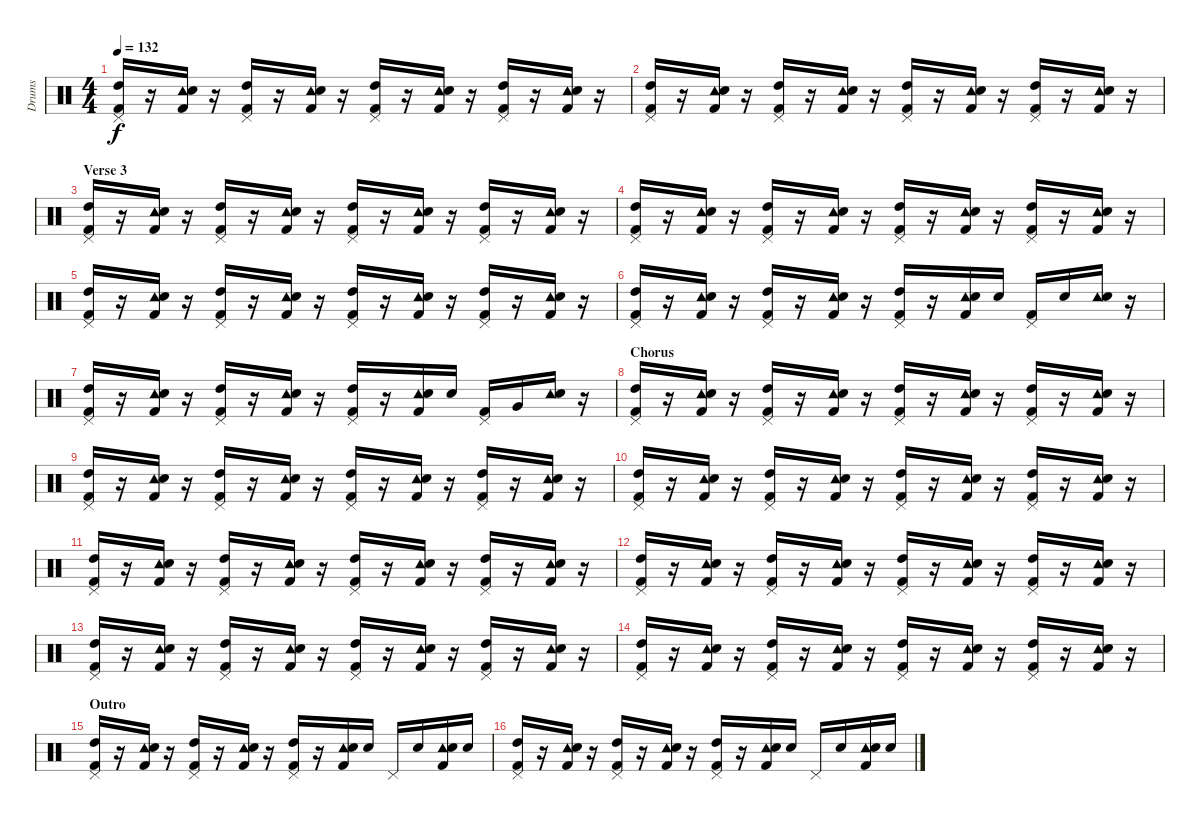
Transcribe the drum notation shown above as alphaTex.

\track ("Drums" "Drums") {instrument percussion}
\staff {score}
\articulation defaults
\ts (4 4)
\tempo 132
\clef neutral
\ks c
("Pedal Hi-Hat (hit)" "Kick (hit) 2" "High Tom (hit)").16{dy f} r.16 ("Tambourine (hit)" "Kick (hit) 2" "Snare (hit) 2").16 r.16 ("Pedal Hi-Hat (hit)" "Kick (hit) 2" "High Tom (hit)").16 r.16 ("Tambourine (hit)" "Kick (hit) 2" "Snare (hit) 2").16 r.16 ("Pedal Hi-Hat (hit)" "Kick (hit) 2" "High Tom (hit)").16 r.16 ("Tambourine (hit)" "Kick (hit) 2" "Snare (hit) 2").16 r.16 ("Pedal Hi-Hat (hit)" "Kick (hit) 2" "High Tom (hit)").16 r.16 ("Tambourine (hit)" "Kick (hit) 2" "Snare (hit) 2").16 r.16 |
("Pedal Hi-Hat (hit)" "Kick (hit) 2" "High Tom (hit)").16 r.16 ("Tambourine (hit)" "Kick (hit) 2" "Snare (hit) 2").16 r.16 ("Pedal Hi-Hat (hit)" "Kick (hit) 2" "High Tom (hit)").16 r.16 ("Tambourine (hit)" "Kick (hit) 2" "Snare (hit) 2").16 r.16 ("Pedal Hi-Hat (hit)" "Kick (hit) 2" "High Tom (hit)").16 r.16 ("Tambourine (hit)" "Kick (hit) 2" "Snare (hit) 2").16 r.16 ("Pedal Hi-Hat (hit)" "Kick (hit) 2" "High Tom (hit)").16 r.16 ("Tambourine (hit)" "Kick (hit) 2" "Snare (hit) 2").16 r.16 |
\section ("" "Verse 3")
("Pedal Hi-Hat (hit)" "Kick (hit) 2" "High Tom (hit)").16 r.16 ("Tambourine (hit)" "Kick (hit) 2" "Snare (hit) 2").16 r.16 ("Pedal Hi-Hat (hit)" "Kick (hit) 2" "High Tom (hit)").16 r.16 ("Tambourine (hit)" "Kick (hit) 2" "Snare (hit) 2").16 r.16 ("Pedal Hi-Hat (hit)" "Kick (hit) 2" "High Tom (hit)").16 r.16 ("Tambourine (hit)" "Kick (hit) 2" "Snare (hit) 2").16 r.16 ("Pedal Hi-Hat (hit)" "Kick (hit) 2" "High Tom (hit)").16 r.16 ("Tambourine (hit)" "Kick (hit) 2" "Snare (hit) 2").16 r.16 |
("Pedal Hi-Hat (hit)" "Kick (hit) 2" "High Tom (hit)").16 r.16 ("Tambourine (hit)" "Kick (hit) 2" "Snare (hit) 2").16 r.16 ("Pedal Hi-Hat (hit)" "Kick (hit) 2" "High Tom (hit)").16 r.16 ("Tambourine (hit)" "Kick (hit) 2" "Snare (hit) 2").16 r.16 ("Pedal Hi-Hat (hit)" "Kick (hit) 2" "High Tom (hit)").16 r.16 ("Tambourine (hit)" "Kick (hit) 2" "Snare (hit) 2").16 r.16 ("Pedal Hi-Hat (hit)" "Kick (hit) 2" "High Tom (hit)").16 r.16 ("Tambourine (hit)" "Kick (hit) 2" "Snare (hit) 2").16 r.16 |
("Pedal Hi-Hat (hit)" "Kick (hit) 2" "High Tom (hit)").16 r.16 ("Tambourine (hit)" "Kick (hit) 2" "Snare (hit) 2").16 r.16 ("Pedal Hi-Hat (hit)" "Kick (hit) 2" "High Tom (hit)").16 r.16 ("Tambourine (hit)" "Kick (hit) 2" "Snare (hit) 2").16 r.16 ("Pedal Hi-Hat (hit)" "Kick (hit) 2" "High Tom (hit)").16 r.16 ("Tambourine (hit)" "Kick (hit) 2" "Snare (hit) 2").16 r.16 ("Pedal Hi-Hat (hit)" "Kick (hit) 2" "High Tom (hit)").16 r.16 ("Tambourine (hit)" "Kick (hit) 2" "Snare (hit) 2").16 r.16 |
("Pedal Hi-Hat (hit)" "Kick (hit) 2" "High Tom (hit)").16 r.16 ("Tambourine (hit)" "Kick (hit) 2" "Snare (hit) 2").16 r.16 ("Pedal Hi-Hat (hit)" "Kick (hit) 2" "High Tom (hit)").16 r.16 ("Tambourine (hit)" "Kick (hit) 2" "Snare (hit) 2").16 r.16 ("Pedal Hi-Hat (hit)" "Kick (hit) 2" "High Tom (hit)").16 r.16 ("Tambourine (hit)" "Kick (hit) 2" "Snare (hit) 2").16 "Snare (hit) 2".16 ("Pedal Hi-Hat (hit)" "Kick (hit) 2").16 "Snare (hit) 2".16 ("Tambourine (hit)" "Snare (hit) 2").16 r.16 |
("Pedal Hi-Hat (hit)" "Kick (hit) 2" "High Tom (hit)").16 r.16 ("Tambourine (hit)" "Kick (hit) 2" "Snare (hit) 2").16 r.16 ("Pedal Hi-Hat (hit)" "Kick (hit) 2" "High Tom (hit)").16 r.16 ("Tambourine (hit)" "Kick (hit) 2" "Snare (hit) 2").16 r.16 ("Pedal Hi-Hat (hit)" "Kick (hit) 2" "High Tom (hit)").16 r.16 ("Tambourine (hit)" "Kick (hit) 2" "Snare (hit) 2").16 "Snare (hit) 2".16 ("Pedal Hi-Hat (hit)" "Kick (hit) 2").16 "Very Low Tom (hit)".16 ("Tambourine (hit)" "Snare (hit) 2").16 r.16 |
\section ("" "Chorus")
("Pedal Hi-Hat (hit)" "Kick (hit) 2" "High Tom (hit)").16 r.16 ("Tambourine (hit)" "Kick (hit) 2" "Snare (hit) 2").16 r.16 ("Pedal Hi-Hat (hit)" "Kick (hit) 2" "High Tom (hit)").16 r.16 ("Tambourine (hit)" "Kick (hit) 2" "Snare (hit) 2").16 r.16 ("Pedal Hi-Hat (hit)" "Kick (hit) 2" "High Tom (hit)").16 r.16 ("Tambourine (hit)" "Kick (hit) 2" "Snare (hit) 2").16 r.16 ("Pedal Hi-Hat (hit)" "Kick (hit) 2" "High Tom (hit)").16 r.16 ("Tambourine (hit)" "Kick (hit) 2" "Snare (hit) 2").16 r.16 |
("Pedal Hi-Hat (hit)" "Kick (hit) 2" "High Tom (hit)").16 r.16 ("Tambourine (hit)" "Kick (hit) 2" "Snare (hit) 2").16 r.16 ("Pedal Hi-Hat (hit)" "Kick (hit) 2" "High Tom (hit)").16 r.16 ("Tambourine (hit)" "Kick (hit) 2" "Snare (hit) 2").16 r.16 ("Pedal Hi-Hat (hit)" "Kick (hit) 2" "High Tom (hit)").16 r.16 ("Tambourine (hit)" "Kick (hit) 2" "Snare (hit) 2").16 r.16 ("Pedal Hi-Hat (hit)" "Kick (hit) 2" "High Tom (hit)").16 r.16 ("Tambourine (hit)" "Kick (hit) 2" "Snare (hit) 2").16 r.16 |
("Pedal Hi-Hat (hit)" "Kick (hit) 2" "High Tom (hit)").16 r.16 ("Tambourine (hit)" "Kick (hit) 2" "Snare (hit) 2").16 r.16 ("Pedal Hi-Hat (hit)" "Kick (hit) 2" "High Tom (hit)").16 r.16 ("Tambourine (hit)" "Kick (hit) 2" "Snare (hit) 2").16 r.16 ("Pedal Hi-Hat (hit)" "Kick (hit) 2" "High Tom (hit)").16 r.16 ("Tambourine (hit)" "Kick (hit) 2" "Snare (hit) 2").16 r.16 ("Pedal Hi-Hat (hit)" "Kick (hit) 2" "High Tom (hit)").16 r.16 ("Tambourine (hit)" "Kick (hit) 2" "Snare (hit) 2").16 r.16 |
("Pedal Hi-Hat (hit)" "Kick (hit) 2" "High Tom (hit)").16 r.16 ("Tambourine (hit)" "Kick (hit) 2" "Snare (hit) 2").16 r.16 ("Pedal Hi-Hat (hit)" "Kick (hit) 2" "High Tom (hit)").16 r.16 ("Tambourine (hit)" "Kick (hit) 2" "Snare (hit) 2").16 r.16 ("Pedal Hi-Hat (hit)" "Kick (hit) 2" "High Tom (hit)").16 r.16 ("Tambourine (hit)" "Kick (hit) 2" "Snare (hit) 2").16 r.16 ("Pedal Hi-Hat (hit)" "Kick (hit) 2" "High Tom (hit)").16 r.16 ("Tambourine (hit)" "Kick (hit) 2" "Snare (hit) 2").16 r.16 |
("Pedal Hi-Hat (hit)" "Kick (hit) 2" "High Tom (hit)").16 r.16 ("Tambourine (hit)" "Kick (hit) 2" "Snare (hit) 2").16 r.16 ("Pedal Hi-Hat (hit)" "Kick (hit) 2" "High Tom (hit)").16 r.16 ("Tambourine (hit)" "Kick (hit) 2" "Snare (hit) 2").16 r.16 ("Pedal Hi-Hat (hit)" "Kick (hit) 2" "High Tom (hit)").16 r.16 ("Tambourine (hit)" "Kick (hit) 2" "Snare (hit) 2").16 r.16 ("Pedal Hi-Hat (hit)" "Kick (hit) 2" "High Tom (hit)").16 r.16 ("Tambourine (hit)" "Kick (hit) 2" "Snare (hit) 2").16 r.16 |
("Pedal Hi-Hat (hit)" "Kick (hit) 2" "High Tom (hit)").16 r.16 ("Tambourine (hit)" "Kick (hit) 2" "Snare (hit) 2").16 r.16 ("Pedal Hi-Hat (hit)" "Kick (hit) 2" "High Tom (hit)").16 r.16 ("Tambourine (hit)" "Kick (hit) 2" "Snare (hit) 2").16 r.16 ("Pedal Hi-Hat (hit)" "Kick (hit) 2" "High Tom (hit)").16 r.16 ("Tambourine (hit)" "Kick (hit) 2" "Snare (hit) 2").16 r.16 ("Pedal Hi-Hat (hit)" "Kick (hit) 2" "High Tom (hit)").16 r.16 ("Tambourine (hit)" "Kick (hit) 2" "Snare (hit) 2").16 r.16 |
("Pedal Hi-Hat (hit)" "Kick (hit) 2" "High Tom (hit)").16 r.16 ("Tambourine (hit)" "Kick (hit) 2" "Snare (hit) 2").16 r.16 ("Pedal Hi-Hat (hit)" "Kick (hit) 2" "High Tom (hit)").16 r.16 ("Tambourine (hit)" "Kick (hit) 2" "Snare (hit) 2").16 r.16 ("Pedal Hi-Hat (hit)" "Kick (hit) 2" "High Tom (hit)").16 r.16 ("Tambourine (hit)" "Kick (hit) 2" "Snare (hit) 2").16 r.16 ("Pedal Hi-Hat (hit)" "Kick (hit) 2" "High Tom (hit)").16 r.16 ("Tambourine (hit)" "Kick (hit) 2" "Snare (hit) 2").16 r.16 |
\section ("" "Outro")
("Pedal Hi-Hat (hit)" "Kick (hit) 2" "High Tom (hit)").16 r.16 ("Tambourine (hit)" "Kick (hit) 2" "Snare (hit) 2").16 r.16 ("Pedal Hi-Hat (hit)" "Kick (hit) 2" "High Tom (hit)").16 r.16 ("Tambourine (hit)" "Kick (hit) 2" "Snare (hit) 2").16 r.16 ("Pedal Hi-Hat (hit)" "Kick (hit) 2" "High Tom (hit)").16 r.16 ("Tambourine (hit)" "Kick (hit) 2" "Snare (hit) 2").16 "Snare (hit) 2".16 "Pedal Hi-Hat (hit)".16 "Snare (hit) 2".16 ("Tambourine (hit)" "Kick (hit) 2" "Snare (hit) 2").16 "Snare (hit) 2".16 |
("Pedal Hi-Hat (hit)" "Kick (hit) 2" "High Tom (hit)").16 r.16 ("Tambourine (hit)" "Kick (hit) 2" "Snare (hit) 2").16 r.16 ("Pedal Hi-Hat (hit)" "Kick (hit) 2" "High Tom (hit)").16 r.16 ("Tambourine (hit)" "Kick (hit) 2" "Snare (hit) 2").16 r.16 ("Pedal Hi-Hat (hit)" "Kick (hit) 2" "High Tom (hit)").16 r.16 ("Tambourine (hit)" "Kick (hit) 2" "Snare (hit) 2").16 "Snare (hit) 2".16 "Pedal Hi-Hat (hit)".16 "Snare (hit) 2".16 ("Tambourine (hit)" "Kick (hit) 2" "Snare (hit) 2").16 "Snare (hit) 2".16
